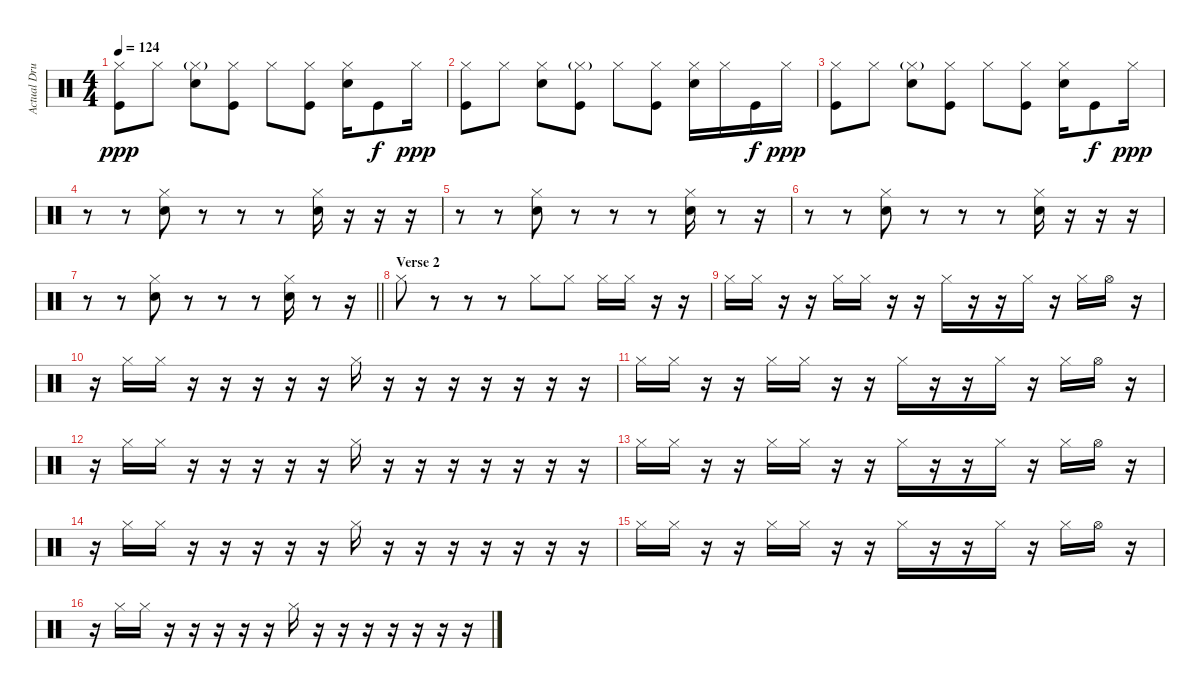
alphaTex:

\track ("Actual Drums" "Actual Dru") {instrument percussion}
\staff {score}
\articulation defaults
\ts (4 4)
\tempo 124
\clef neutral
\ks c
("Hi-Hat (closed)" "Kick (hit)").8{dy ppp} "Hi-Hat (closed)".8 ("Hi-Hat (closed)"{g} "Snare (hit) 2").8 ("Hi-Hat (closed)" "Kick (hit)").8 "Hi-Hat (closed)".8 ("Hi-Hat (closed)" "Kick (hit)").8 ("Hi-Hat (closed)" "Snare (hit) 2").16 "Kick (hit)".8{dy f} "Hi-Hat (closed)".16{dy ppp} |
("Hi-Hat (closed)" "Kick (hit)").8 "Hi-Hat (closed)".8 ("Hi-Hat (closed)" "Snare (hit) 2").8 ("Hi-Hat (closed)"{g} "Kick (hit)").8 "Hi-Hat (closed)".8 ("Hi-Hat (closed)" "Kick (hit)").8 ("Hi-Hat (closed)" "Snare (hit) 2").16 "Hi-Hat (closed)".16 "Kick (hit)".16{dy f} "Hi-Hat (closed)".16{dy ppp} |
("Hi-Hat (closed)" "Kick (hit)").8 "Hi-Hat (closed)".8 ("Hi-Hat (closed)"{g} "Snare (hit) 2").8 ("Hi-Hat (closed)" "Kick (hit)").8 "Hi-Hat (closed)".8 ("Hi-Hat (closed)" "Kick (hit)").8 ("Hi-Hat (closed)" "Snare (hit) 2").16 "Kick (hit)".8{dy f} "Hi-Hat (closed)".16{dy ppp} |
r.8 r.8 ("Hi-Hat (closed)" "Snare (hit) 2").8 r.8 r.8 r.8 ("Hi-Hat (closed)" "Snare (hit) 2").16 r.16 r.16 r.16 |
r.8 r.8 ("Hi-Hat (closed)" "Snare (hit) 2").8 r.8 r.8 r.8 ("Hi-Hat (closed)" "Snare (hit) 2").16 r.8 r.16 |
r.8 r.8 ("Hi-Hat (closed)" "Snare (hit) 2").8 r.8 r.8 r.8 ("Hi-Hat (closed)" "Snare (hit) 2").16 r.16 r.16 r.16 |
\barLineRight lightlight
r.8 r.8 ("Hi-Hat (closed)" "Snare (hit) 2").8 r.8 r.8 r.8 ("Hi-Hat (closed)" "Snare (hit) 2").16 r.8 r.16 |
\section ("" "Verse 2")
"Hi-Hat (closed)".8 r.8 r.8 r.8 "Hi-Hat (closed)".8 "Hi-Hat (closed)".8 "Hi-Hat (closed)".16 "Hi-Hat (closed)".16 r.16 r.16 |
"Hi-Hat (closed)".16 "Hi-Hat (closed)".16 r.16 r.16 "Hi-Hat (closed)".16 "Hi-Hat (closed)".16 r.16 r.16 "Hi-Hat (closed)".16 r.16 r.16 "Hi-Hat (closed)".16 r.16 "Hi-Hat (closed)".16 "Hi-Hat (open)".16 r.16 |
r.16 "Hi-Hat (closed)".16 "Hi-Hat (closed)".16 r.16 r.16 r.16 r.16 r.16 "Hi-Hat (closed)".16 r.16 r.16 r.16 r.16 r.16 r.16 r.16 |
"Hi-Hat (closed)".16 "Hi-Hat (closed)".16 r.16 r.16 "Hi-Hat (closed)".16 "Hi-Hat (closed)".16 r.16 r.16 "Hi-Hat (closed)".16 r.16 r.16 "Hi-Hat (closed)".16 r.16 "Hi-Hat (closed)".16 "Hi-Hat (open)".16 r.16 |
r.16 "Hi-Hat (closed)".16 "Hi-Hat (closed)".16 r.16 r.16 r.16 r.16 r.16 "Hi-Hat (closed)".16 r.16 r.16 r.16 r.16 r.16 r.16 r.16 |
"Hi-Hat (closed)".16 "Hi-Hat (closed)".16 r.16 r.16 "Hi-Hat (closed)".16 "Hi-Hat (closed)".16 r.16 r.16 "Hi-Hat (closed)".16 r.16 r.16 "Hi-Hat (closed)".16 r.16 "Hi-Hat (closed)".16 "Hi-Hat (open)".16 r.16 |
r.16 "Hi-Hat (closed)".16 "Hi-Hat (closed)".16 r.16 r.16 r.16 r.16 r.16 "Hi-Hat (closed)".16 r.16 r.16 r.16 r.16 r.16 r.16 r.16 |
"Hi-Hat (closed)".16 "Hi-Hat (closed)".16 r.16 r.16 "Hi-Hat (closed)".16 "Hi-Hat (closed)".16 r.16 r.16 "Hi-Hat (closed)".16 r.16 r.16 "Hi-Hat (closed)".16 r.16 "Hi-Hat (closed)".16 "Hi-Hat (open)".16 r.16 |
r.16 "Hi-Hat (closed)".16 "Hi-Hat (closed)".16 r.16 r.16 r.16 r.16 r.16 "Hi-Hat (closed)".16 r.16 r.16 r.16 r.16 r.16 r.16 r.16
